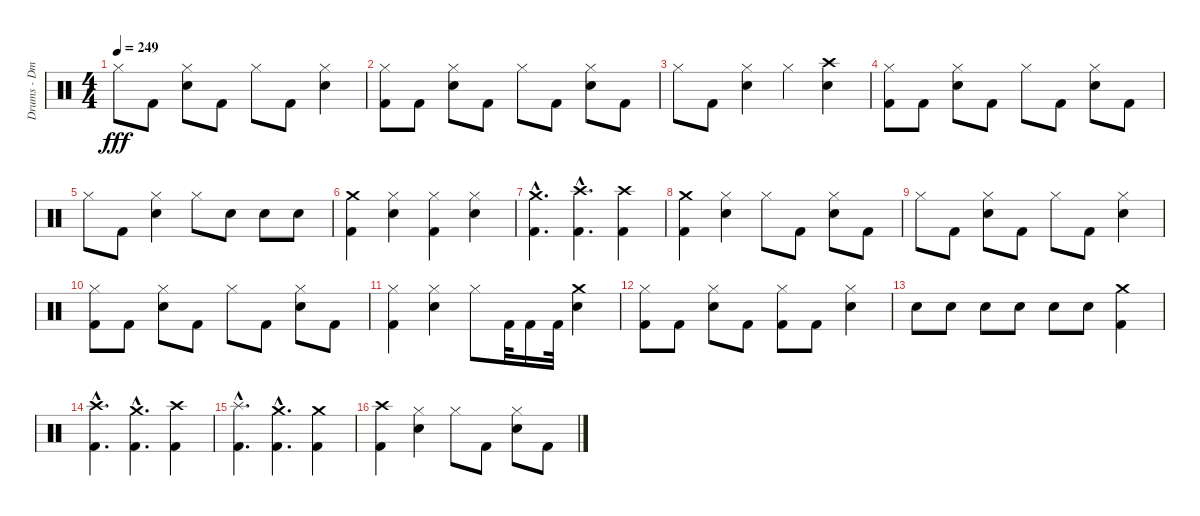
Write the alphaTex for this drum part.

\track ("Drums - Dmitriy Krivenkov" "Drums - Dm") {instrument percussion}
\staff {score}
\articulation defaults
\ts (4 4)
\tempo 249
\clef neutral
\ks c "Hi-Hat (closed)".8{dy fff} "Kick (hit) 2".8
("Hi-Hat (closed)" "Electric Snare (hit)").8 "Kick (hit) 2".8 "Hi-Hat (closed)".8 "Kick (hit) 2".8 ("Hi-Hat (closed)" "Electric Snare (hit)").4 |
("Kick (hit) 2" "Hi-Hat (closed)").8 "Kick (hit) 2".8 ("Hi-Hat (closed)" "Electric Snare (hit)").8 "Kick (hit) 2".8 "Hi-Hat (closed)".8 "Kick (hit) 2".8 ("Hi-Hat (closed)" "Electric Snare (hit)").8 "Kick (hit) 2".8 |
"Hi-Hat (closed)".8 "Kick (hit) 2".8 ("Hi-Hat (closed)" "Electric Snare (hit)").4 "Hi-Hat (closed)".4 ("Crash high (hit)" "Electric Snare (hit)").4 |
("Kick (hit) 2" "Hi-Hat (closed)").8 "Kick (hit) 2".8 ("Hi-Hat (closed)" "Electric Snare (hit)").8 "Kick (hit) 2".8 "Hi-Hat (closed)".8 "Kick (hit) 2".8 ("Hi-Hat (closed)" "Electric Snare (hit)").8 "Kick (hit) 2".8 |
"Hi-Hat (closed)".8 "Kick (hit) 2".8 ("Hi-Hat (closed)" "Electric Snare (hit)").4 "Hi-Hat (closed)".8 "Electric Snare (hit)".8 "Electric Snare (hit)".8 "Electric Snare (hit)".8 |
("Kick (hit) 2" "Crash medium (hit)").4 ("Hi-Hat (closed)" "Electric Snare (hit)").4 ("Kick (hit) 2" "Hi-Hat (closed)").4 ("Hi-Hat (closed)" "Electric Snare (hit)").4 |
("Kick (hit) 2"{hac} "Crash medium (hit)"{hac}).4{d} ("Kick (hit) 2"{hac} "Crash high (hit)"{hac}).4{d} ("Kick (hit) 2" "Crash high (hit)").4 |
("Kick (hit) 2" "Crash medium (hit)").4 ("Hi-Hat (closed)" "Electric Snare (hit)").4 "Hi-Hat (closed)".8 "Kick (hit) 2".8 ("Hi-Hat (closed)" "Electric Snare (hit)").8 "Kick (hit) 2".8 |
"Hi-Hat (closed)".8 "Kick (hit) 2".8 ("Hi-Hat (closed)" "Electric Snare (hit)").8 "Kick (hit) 2".8 "Hi-Hat (closed)".8 "Kick (hit) 2".8 ("Hi-Hat (closed)" "Electric Snare (hit)").4 |
("Kick (hit) 2" "Hi-Hat (closed)").8 "Kick (hit) 2".8 ("Hi-Hat (closed)" "Electric Snare (hit)").8 "Kick (hit) 2".8 "Hi-Hat (closed)".8 "Kick (hit) 2".8 ("Hi-Hat (closed)" "Electric Snare (hit)").8 "Kick (hit) 2".8 |
("Kick (hit) 2" "Hi-Hat (closed)").4 ("Hi-Hat (closed)" "Electric Snare (hit)").4 "Hi-Hat (closed)".8 "Kick (hit) 2".32 "Kick (hit) 2".16 "Kick (hit) 2".32 ("Crash medium (hit)" "Electric Snare (hit)").4 |
("Kick (hit) 2" "Hi-Hat (closed)").8 "Kick (hit) 2".8 ("Hi-Hat (closed)" "Electric Snare (hit)").8 "Kick (hit) 2".8 ("Kick (hit) 2" "Hi-Hat (closed)").8 "Kick (hit) 2".8 ("Hi-Hat (closed)" "Electric Snare (hit)").4 |
"Electric Snare (hit)".8 "Electric Snare (hit)".8 "Electric Snare (hit)".8 "Electric Snare (hit)".8 "Electric Snare (hit)".8 "Electric Snare (hit)".8 ("Kick (hit) 2" "Crash medium (hit)").4 |
("Kick (hit) 2"{hac} "Crash high (hit)"{hac}).4{d} ("Kick (hit) 2"{hac} "Crash medium (hit)"{hac}).4{d} ("Kick (hit) 2" "Crash high (hit)").4 |
("Kick (hit) 2"{hac} "Splash (hit)"{hac}).4{d} ("Kick (hit) 2"{hac} "Crash medium (hit)"{hac}).4{d} ("Kick (hit) 2" "Crash medium (hit)").4 |
("Kick (hit) 2" "Crash high (hit)").4 ("Electric Snare (hit)" "Hi-Hat (closed)").4 "Hi-Hat (closed)".8 "Kick (hit) 2".8 ("Electric Snare (hit)" "Hi-Hat (closed)").8 "Kick (hit) 2".8
